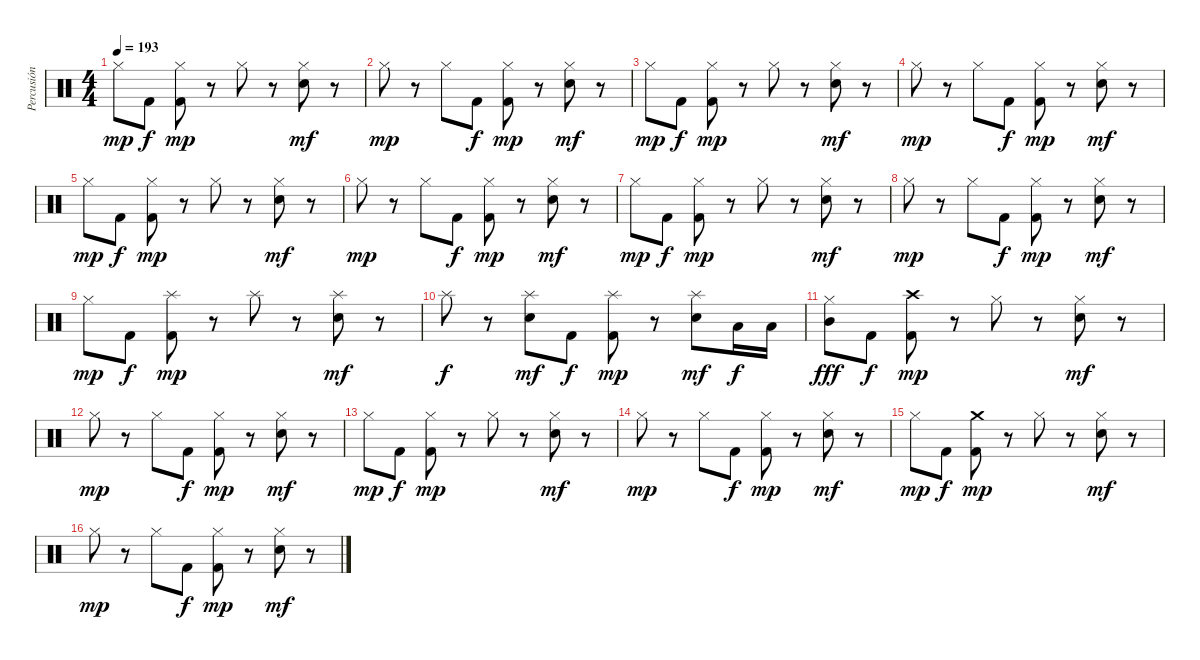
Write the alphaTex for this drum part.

\track ("Percusión" "Percusión") {instrument percussion}
\staff {score}
\articulation defaults
\ts (4 4)
\tempo 193
\clef neutral
\ks c "Hi-Hat (closed)".8{dy mp} "Kick (hit) 2".8{dy f}
("Hi-Hat (closed)" "Kick (hit) 2").8{dy mp} r.8 "Hi-Hat (closed)".8 r.8 ("Hi-Hat (closed)" "Electric Snare (hit)").8{dy mf} r.8 |
"Hi-Hat (closed)".8{dy mp} r.8 "Hi-Hat (closed)".8 "Kick (hit) 2".8{dy f} ("Hi-Hat (closed)" "Kick (hit) 2").8{dy mp} r.8 ("Hi-Hat (closed)" "Electric Snare (hit)").8{dy mf} r.8 |
"Hi-Hat (closed)".8{dy mp} "Kick (hit) 2".8{dy f} ("Hi-Hat (closed)" "Kick (hit) 2").8{dy mp} r.8 "Hi-Hat (closed)".8 r.8 ("Hi-Hat (closed)" "Electric Snare (hit)").8{dy mf} r.8 |
"Hi-Hat (closed)".8{dy mp} r.8 "Hi-Hat (closed)".8 "Kick (hit) 2".8{dy f} ("Hi-Hat (closed)" "Kick (hit) 2").8{dy mp} r.8 ("Hi-Hat (closed)" "Electric Snare (hit)").8{dy mf} r.8 |
"Hi-Hat (closed)".8{dy mp} "Kick (hit) 2".8{dy f} ("Hi-Hat (closed)" "Kick (hit) 2").8{dy mp} r.8 "Hi-Hat (closed)".8 r.8 ("Hi-Hat (closed)" "Electric Snare (hit)").8{dy mf} r.8 |
"Hi-Hat (closed)".8{dy mp} r.8 "Hi-Hat (closed)".8 "Kick (hit) 2".8{dy f} ("Hi-Hat (closed)" "Kick (hit) 2").8{dy mp} r.8 ("Hi-Hat (closed)" "Electric Snare (hit)").8{dy mf} r.8 |
"Hi-Hat (closed)".8{dy mp} "Kick (hit) 2".8{dy f} ("Hi-Hat (closed)" "Kick (hit) 2").8{dy mp} r.8 "Hi-Hat (closed)".8 r.8 ("Hi-Hat (closed)" "Electric Snare (hit)").8{dy mf} r.8 |
"Hi-Hat (closed)".8{dy mp} r.8 "Hi-Hat (closed)".8 "Kick (hit) 2".8{dy f} ("Hi-Hat (closed)" "Kick (hit) 2").8{dy mp} r.8 ("Hi-Hat (closed)" "Electric Snare (hit)").8{dy mf} r.8 |
"Hi-Hat (closed)".8{dy mp} "Kick (hit) 2".8{dy f} ("Splash (hit)" "Kick (hit) 2").8{dy mp} r.8 "Splash (hit)".8 r.8 ("Splash (hit)" "Electric Snare (hit)").8{dy mf} r.8 |
"Splash (hit)".8{dy f} r.8 ("Splash (hit)" "Electric Snare (hit)").8{dy mf} "Kick (hit) 2".8{dy f} ("Splash (hit)" "Kick (hit) 2").8{dy mp} r.8 ("Splash (hit)" "Electric Snare (hit)").8{dy mf} "Low Tom (hit)".16{dy f} "Low Tom (hit)".16 |
("Hi-Hat (closed)" "Mid Tom (hit)").8{dy fff} "Kick (hit) 2".8{dy f} ("Crash high (hit)" "Kick (hit) 2").8{dy mp} r.8 "Hi-Hat (closed)".8 r.8 ("Hi-Hat (closed)" "Electric Snare (hit)").8{dy mf} r.8 |
"Hi-Hat (closed)".8{dy mp} r.8 "Hi-Hat (closed)".8 "Kick (hit) 2".8{dy f} ("Hi-Hat (closed)" "Kick (hit) 2").8{dy mp} r.8 ("Hi-Hat (closed)" "Electric Snare (hit)").8{dy mf} r.8 |
"Hi-Hat (closed)".8{dy mp} "Kick (hit) 2".8{dy f} ("Hi-Hat (closed)" "Kick (hit) 2").8{dy mp} r.8 "Hi-Hat (closed)".8 r.8 ("Hi-Hat (closed)" "Electric Snare (hit)").8{dy mf} r.8 |
"Hi-Hat (closed)".8{dy mp} r.8 "Hi-Hat (closed)".8 "Kick (hit) 2".8{dy f} ("Hi-Hat (closed)" "Kick (hit) 2").8{dy mp} r.8 ("Hi-Hat (closed)" "Electric Snare (hit)").8{dy mf} r.8 |
"Hi-Hat (closed)".8{dy mp} "Kick (hit) 2".8{dy f} ("Crash medium (hit)" "Kick (hit) 2").8{dy mp} r.8 "Hi-Hat (closed)".8 r.8 ("Hi-Hat (closed)" "Electric Snare (hit)").8{dy mf} r.8 |
"Hi-Hat (closed)".8{dy mp} r.8 "Hi-Hat (closed)".8 "Kick (hit) 2".8{dy f} ("Hi-Hat (closed)" "Kick (hit) 2").8{dy mp} r.8 ("Hi-Hat (closed)" "Electric Snare (hit)").8{dy mf} r.8
